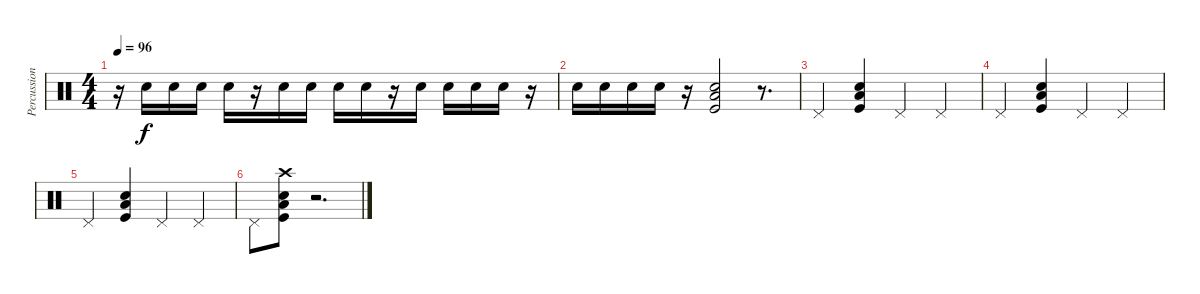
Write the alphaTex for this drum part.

\track ("Percussions" "Percussion") {instrument percussion}
\staff {score}
\articulation defaults
\ts (4 4)
\tempo 96
\clef neutral
\ks c
r.16{dy f} "Snare (hit) 2".16 "Snare (hit) 2".16 "Snare (hit) 2".16 "Snare (hit) 2".16 r.16 "Snare (hit) 2".16 "Snare (hit) 2".16 "Snare (hit) 2".16 "Snare (hit) 2".16 r.16 "Snare (hit) 2".16 "Snare (hit) 2".16 "Snare (hit) 2".16 "Snare (hit) 2".16 r.16 |
"Snare (hit) 2".16 "Snare (hit) 2".16 "Snare (hit) 2".16 "Snare (hit) 2".16 r.16 ("Low Floor Tom (hit)" "Snare (hit) 2" "Kick (hit)").2 r.8{d} |
"Pedal Hi-Hat (hit)".4 ("Low Floor Tom (hit)" "Snare (hit) 2" "Kick (hit)").4 "Pedal Hi-Hat (hit)".4 "Pedal Hi-Hat (hit)".4 |
"Pedal Hi-Hat (hit)".4 ("Low Floor Tom (hit)" "Snare (hit) 2" "Kick (hit)").4 "Pedal Hi-Hat (hit)".4 "Pedal Hi-Hat (hit)".4 |
"Pedal Hi-Hat (hit)".4 ("Low Floor Tom (hit)" "Snare (hit) 2" "Kick (hit)").4 "Pedal Hi-Hat (hit)".4 "Pedal Hi-Hat (hit)".4 |
"Pedal Hi-Hat (hit)".8 ("Crash high (hit)" "Low Floor Tom (hit)" "Snare (hit) 2" "Kick (hit)").8 r.2{d}
